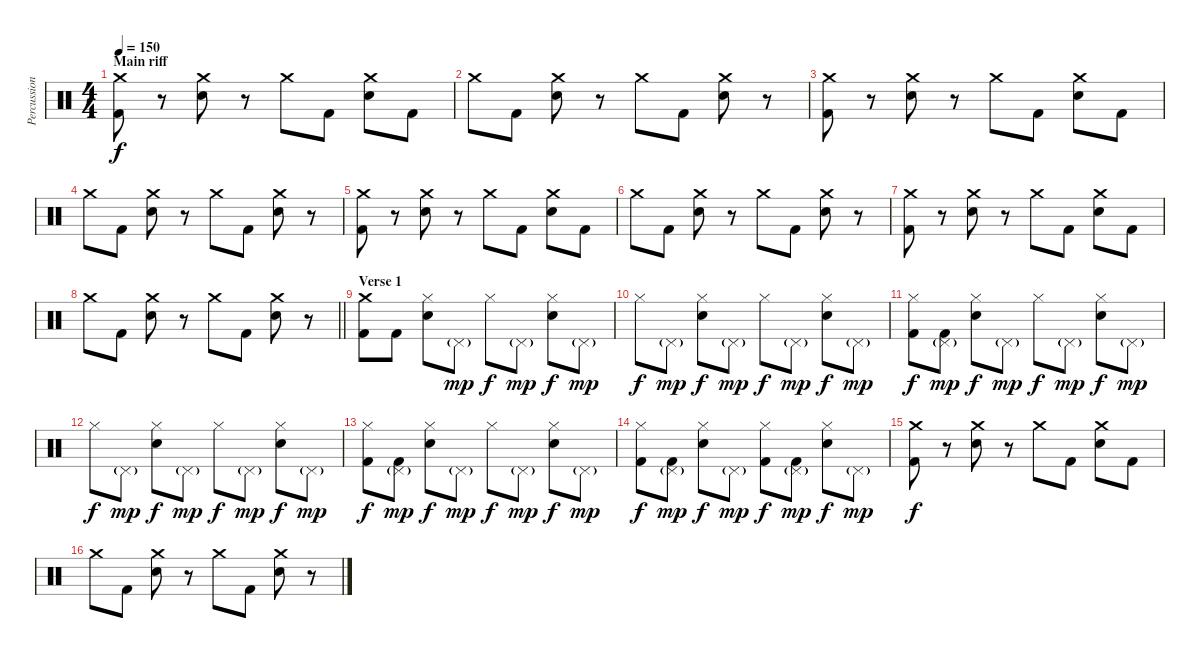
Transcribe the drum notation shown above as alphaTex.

\track ("Percussion" "Percussion") {instrument percussion}
\staff {score}
\articulation defaults
\ts (4 4)
\section ("" "Main riff")
\tempo 150
\clef neutral
\ks c
("Crash medium (hit)" "Kick (hit) 2").8{dy f} r.8 ("Crash medium (hit)" "Electric Snare (hit)").8 r.8 "Crash medium (hit)".8 "Kick (hit) 2".8 ("Crash medium (hit)" "Electric Snare (hit)").8 "Kick (hit) 2".8 |
"Crash medium (hit)".8 "Kick (hit) 2".8 ("Crash medium (hit)" "Electric Snare (hit)").8 r.8 "Crash medium (hit)".8 "Kick (hit) 2".8 ("Crash medium (hit)" "Electric Snare (hit)").8 r.8 |
("Crash medium (hit)" "Kick (hit) 2").8 r.8 ("Crash medium (hit)" "Electric Snare (hit)").8 r.8 "Crash medium (hit)".8 "Kick (hit) 2".8 ("Crash medium (hit)" "Electric Snare (hit)").8 "Kick (hit) 2".8 |
"Crash medium (hit)".8 "Kick (hit) 2".8 ("Crash medium (hit)" "Electric Snare (hit)").8 r.8 "Crash medium (hit)".8 "Kick (hit) 2".8 ("Crash medium (hit)" "Electric Snare (hit)").8 r.8 |
("Crash medium (hit)" "Kick (hit) 2").8 r.8 ("Crash medium (hit)" "Electric Snare (hit)").8 r.8 "Crash medium (hit)".8 "Kick (hit) 2".8 ("Crash medium (hit)" "Electric Snare (hit)").8 "Kick (hit) 2".8 |
"Crash medium (hit)".8 "Kick (hit) 2".8 ("Crash medium (hit)" "Electric Snare (hit)").8 r.8 "Crash medium (hit)".8 "Kick (hit) 2".8 ("Crash medium (hit)" "Electric Snare (hit)").8 r.8 |
("Crash medium (hit)" "Kick (hit) 2").8 r.8 ("Crash medium (hit)" "Electric Snare (hit)").8 r.8 "Crash medium (hit)".8 "Kick (hit) 2".8 ("Crash medium (hit)" "Electric Snare (hit)").8 "Kick (hit) 2".8 |
\barLineRight lightlight "Crash medium (hit)".8 "Kick (hit) 2".8
("Crash medium (hit)" "Electric Snare (hit)").8 r.8 "Crash medium (hit)".8 "Kick (hit) 2".8 ("Crash medium (hit)" "Electric Snare (hit)").8 r.8 |
\section ("" "Verse 1")
("Crash medium (hit)" "Kick (hit) 2").8 "Kick (hit) 2".8 ("Hi-Hat (closed)" "Electric Snare (hit)").8 "Pedal Hi-Hat (hit)"{g}.8{dy mp} "Hi-Hat (closed)".8{dy f} "Pedal Hi-Hat (hit)"{g}.8{dy mp} ("Hi-Hat (closed)" "Electric Snare (hit)").8{dy f} "Pedal Hi-Hat (hit)"{g}.8{dy mp} |
"Hi-Hat (closed)".8{dy f} "Pedal Hi-Hat (hit)"{g}.8{dy mp} ("Hi-Hat (closed)" "Electric Snare (hit)").8{dy f} "Pedal Hi-Hat (hit)"{g}.8{dy mp} "Hi-Hat (closed)".8{dy f} "Pedal Hi-Hat (hit)"{g}.8{dy mp} ("Hi-Hat (closed)" "Electric Snare (hit)").8{dy f} "Pedal Hi-Hat (hit)"{g}.8{dy mp} |
("Hi-Hat (closed)" "Kick (hit) 2").8{dy f} ("Pedal Hi-Hat (hit)"{g} "Kick (hit) 2").8{dy mp} ("Hi-Hat (closed)" "Electric Snare (hit)").8{dy f} "Pedal Hi-Hat (hit)"{g}.8{dy mp} "Hi-Hat (closed)".8{dy f} "Pedal Hi-Hat (hit)"{g}.8{dy mp} ("Hi-Hat (closed)" "Electric Snare (hit)").8{dy f} "Pedal Hi-Hat (hit)"{g}.8{dy mp} |
"Hi-Hat (closed)".8{dy f} "Pedal Hi-Hat (hit)"{g}.8{dy mp} ("Hi-Hat (closed)" "Electric Snare (hit)").8{dy f} "Pedal Hi-Hat (hit)"{g}.8{dy mp} "Hi-Hat (closed)".8{dy f} "Pedal Hi-Hat (hit)"{g}.8{dy mp} ("Hi-Hat (closed)" "Electric Snare (hit)").8{dy f} "Pedal Hi-Hat (hit)"{g}.8{dy mp} |
("Hi-Hat (closed)" "Kick (hit) 2").8{dy f} ("Pedal Hi-Hat (hit)"{g} "Kick (hit) 2").8{dy mp} ("Hi-Hat (closed)" "Electric Snare (hit)").8{dy f} "Pedal Hi-Hat (hit)"{g}.8{dy mp} "Hi-Hat (closed)".8{dy f} "Pedal Hi-Hat (hit)"{g}.8{dy mp} ("Hi-Hat (closed)" "Electric Snare (hit)").8{dy f} "Pedal Hi-Hat (hit)"{g}.8{dy mp} |
("Hi-Hat (closed)" "Kick (hit) 2").8{dy f} ("Pedal Hi-Hat (hit)"{g} "Kick (hit) 2").8{dy mp} ("Hi-Hat (closed)" "Electric Snare (hit)").8{dy f} "Pedal Hi-Hat (hit)"{g}.8{dy mp} ("Hi-Hat (closed)" "Kick (hit) 2").8{dy f} ("Pedal Hi-Hat (hit)"{g} "Kick (hit) 2").8{dy mp} ("Hi-Hat (closed)" "Electric Snare (hit)").8{dy f} "Pedal Hi-Hat (hit)"{g}.8{dy mp} |
("Crash medium (hit)" "Kick (hit) 2").8{dy f} r.8 ("Crash medium (hit)" "Electric Snare (hit)").8 r.8 "Crash medium (hit)".8 "Kick (hit) 2".8 ("Crash medium (hit)" "Electric Snare (hit)").8 "Kick (hit) 2".8 |
"Crash medium (hit)".8 "Kick (hit) 2".8 ("Crash medium (hit)" "Electric Snare (hit)").8 r.8 "Crash medium (hit)".8 "Kick (hit) 2".8 ("Crash medium (hit)" "Electric Snare (hit)").8 r.8
